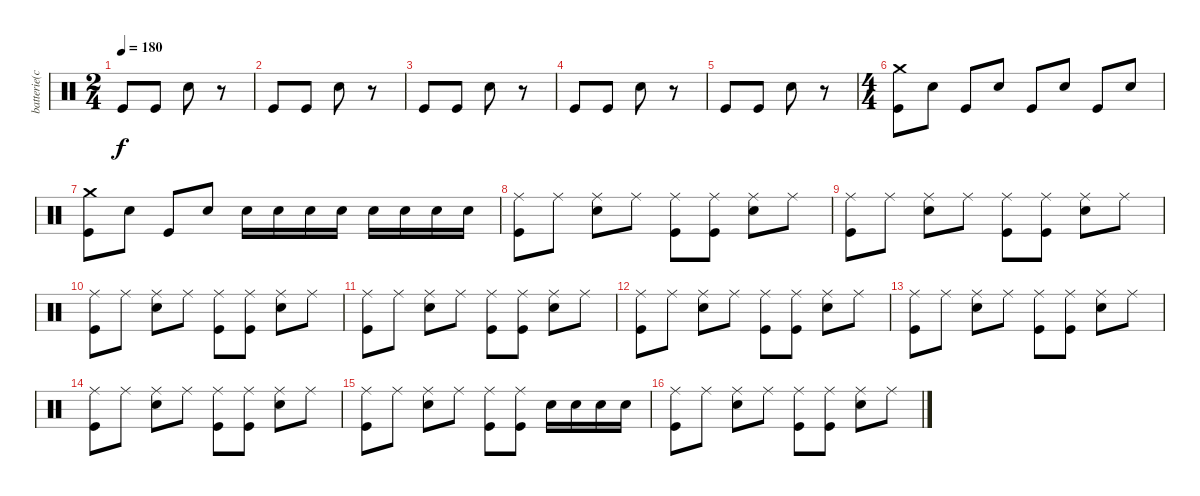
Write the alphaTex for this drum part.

\track ("batterie(chip)" "batterie(c") {instrument percussion}
\staff {score}
\articulation defaults
\ts (2 4)
\tempo 180
\clef neutral
\ks c "Kick (hit)".8{dy f} "Kick (hit)".8 "Snare (hit) 2".8
r.8 |
"Kick (hit)".8 "Kick (hit)".8 "Snare (hit) 2".8 r.8 |
"Kick (hit)".8 "Kick (hit)".8 "Snare (hit) 2".8 r.8 |
"Kick (hit)".8 "Kick (hit)".8 "Snare (hit) 2".8 r.8 |
"Kick (hit)".8 "Kick (hit)".8 "Snare (hit) 2".8 r.8 |
\ts (4 4)
("Crash medium (hit)" "Kick (hit)").8 "Snare (hit) 2".8 "Kick (hit)".8 "Snare (hit) 2".8 "Kick (hit)".8 "Snare (hit) 2".8 "Kick (hit)".8 "Snare (hit) 2".8 |
("Crash medium (hit)" "Kick (hit)").8 "Snare (hit) 2".8 "Kick (hit)".8 "Snare (hit) 2".8 "Snare (hit) 2".16 "Snare (hit) 2".16 "Snare (hit) 2".16 "Snare (hit) 2".16 "Snare (hit) 2".16 "Snare (hit) 2".16 "Snare (hit) 2".16 "Snare (hit) 2".16 |
("Ride (middle)" "Kick (hit)").8 "Ride (middle)".8 ("Ride (middle)" "Snare (hit) 2").8 "Ride (middle)".8 ("Ride (middle)" "Kick (hit)").8 ("Ride (middle)" "Kick (hit)").8 ("Ride (middle)" "Snare (hit) 2").8 "Ride (middle)".8 |
("Ride (middle)" "Kick (hit)").8 "Ride (middle)".8 ("Ride (middle)" "Snare (hit) 2").8 "Ride (middle)".8 ("Ride (middle)" "Kick (hit)").8 ("Ride (middle)" "Kick (hit)").8 ("Ride (middle)" "Snare (hit) 2").8 "Ride (middle)".8 |
("Ride (middle)" "Kick (hit)").8 "Ride (middle)".8 ("Ride (middle)" "Snare (hit) 2").8 "Ride (middle)".8 ("Ride (middle)" "Kick (hit)").8 ("Ride (middle)" "Kick (hit)").8 ("Ride (middle)" "Snare (hit) 2").8 "Ride (middle)".8 |
("Ride (middle)" "Kick (hit)").8 "Ride (middle)".8 ("Ride (middle)" "Snare (hit) 2").8 "Ride (middle)".8 ("Ride (middle)" "Kick (hit)").8 ("Ride (middle)" "Kick (hit)").8 ("Ride (middle)" "Snare (hit) 2").8 "Ride (middle)".8 |
("Ride (middle)" "Kick (hit)").8 "Ride (middle)".8 ("Ride (middle)" "Snare (hit) 2").8 "Ride (middle)".8 ("Ride (middle)" "Kick (hit)").8 ("Ride (middle)" "Kick (hit)").8 ("Ride (middle)" "Snare (hit) 2").8 "Ride (middle)".8 |
("Ride (middle)" "Kick (hit)").8 "Ride (middle)".8 ("Ride (middle)" "Snare (hit) 2").8 "Ride (middle)".8 ("Ride (middle)" "Kick (hit)").8 ("Ride (middle)" "Kick (hit)").8 ("Ride (middle)" "Snare (hit) 2").8 "Ride (middle)".8 |
("Ride (middle)" "Kick (hit)").8 "Ride (middle)".8 ("Ride (middle)" "Snare (hit) 2").8 "Ride (middle)".8 ("Ride (middle)" "Kick (hit)").8 ("Ride (middle)" "Kick (hit)").8 ("Ride (middle)" "Snare (hit) 2").8 "Ride (middle)".8 |
("Ride (middle)" "Kick (hit)").8 "Ride (middle)".8 ("Ride (middle)" "Snare (hit) 2").8 "Ride (middle)".8 ("Ride (middle)" "Kick (hit)").8 ("Ride (middle)" "Kick (hit)").8 "Snare (hit) 2".16 "Snare (hit) 2".16 "Snare (hit) 2".16 "Snare (hit) 2".16 |
("Ride (middle)" "Kick (hit)").8 "Ride (middle)".8 ("Ride (middle)" "Snare (hit) 2").8 "Ride (middle)".8 ("Ride (middle)" "Kick (hit)").8 ("Ride (middle)" "Kick (hit)").8 ("Ride (middle)" "Snare (hit) 2").8 "Ride (middle)".8
